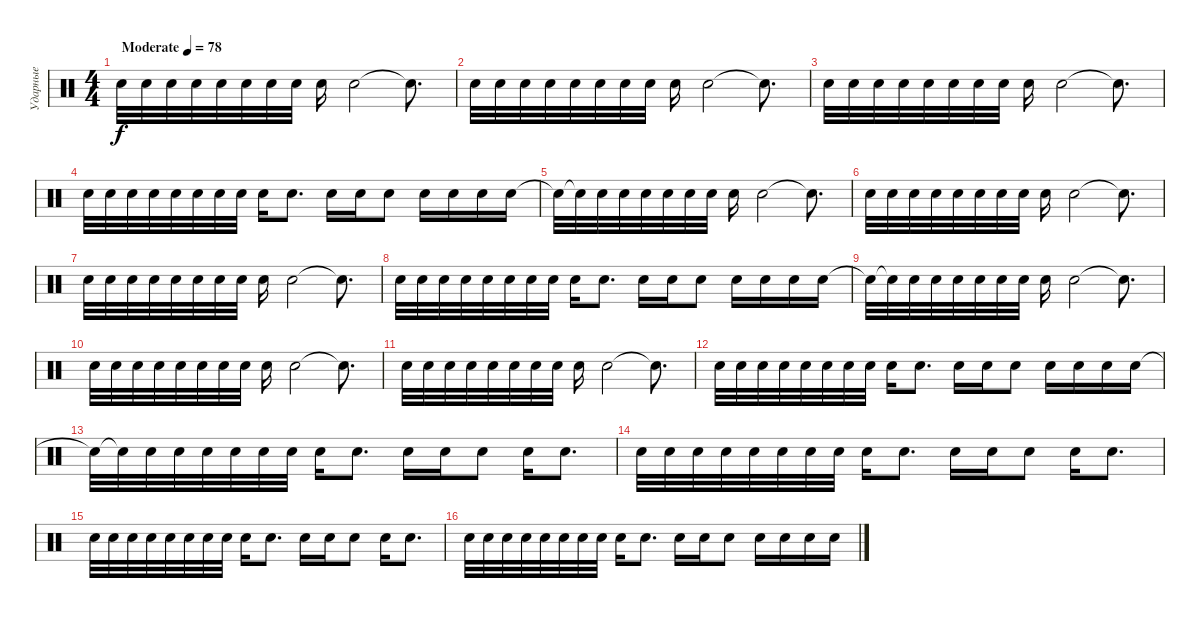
\track ("Ударные" "Ударные") {instrument percussion}
\staff {score}
\articulation defaults
\ts (4 4)
\tempo (78 "Moderate")
\clef neutral
\ks c "Snare (hit) 2".32{dy f} "Snare (hit) 2".32 "Snare (hit) 2".32 "Snare (hit) 2".32 "Snare (hit) 2".32 "Snare (hit) 2".32 "Snare (hit) 2".32 "Snare (hit) 2".32 "Snare (hit) 2".16 "Snare (hit) 2".2 "Snare (hit)"{t}.8{d}
|
"Snare (hit) 2".32 "Snare (hit) 2".32 "Snare (hit) 2".32 "Snare (hit) 2".32 "Snare (hit) 2".32 "Snare (hit) 2".32 "Snare (hit) 2".32 "Snare (hit) 2".32 "Snare (hit) 2".16 "Snare (hit) 2".2 "Snare (hit)"{t}.8{d} |
"Snare (hit) 2".32 "Snare (hit) 2".32 "Snare (hit) 2".32 "Snare (hit) 2".32 "Snare (hit) 2".32 "Snare (hit) 2".32 "Snare (hit) 2".32 "Snare (hit) 2".32 "Snare (hit) 2".16 "Snare (hit) 2".2 "Snare (hit)"{t}.8{d} |
"Snare (hit) 2".32 "Snare (hit) 2".32 "Snare (hit) 2".32 "Snare (hit) 2".32 "Snare (hit) 2".32 "Snare (hit) 2".32 "Snare (hit) 2".32 "Snare (hit) 2".32 "Snare (hit) 2".16 "Snare (hit) 2".8{d} "Snare (hit) 2".16 "Snare (hit) 2".16 "Snare (hit) 2".8 "Snare (hit) 2".16 "Snare (hit) 2".16 "Snare (hit) 2".16 "Snare (hit) 2".16 |
"Snare (hit) 2"{t}.32 "Snare (hit) 2"{t}.32 "Snare (hit) 2".32 "Snare (hit) 2".32 "Snare (hit) 2".32 "Snare (hit) 2".32 "Snare (hit) 2".32 "Snare (hit) 2".32 "Snare (hit) 2".16 "Snare (hit) 2".2 "Snare (hit)"{t}.8{d} |
"Snare (hit) 2".32 "Snare (hit) 2".32 "Snare (hit) 2".32 "Snare (hit) 2".32 "Snare (hit) 2".32 "Snare (hit) 2".32 "Snare (hit) 2".32 "Snare (hit) 2".32 "Snare (hit) 2".16 "Snare (hit) 2".2 "Snare (hit)"{t}.8{d} |
"Snare (hit) 2".32 "Snare (hit) 2".32 "Snare (hit) 2".32 "Snare (hit) 2".32 "Snare (hit) 2".32 "Snare (hit) 2".32 "Snare (hit) 2".32 "Snare (hit) 2".32 "Snare (hit) 2".16 "Snare (hit) 2".2 "Snare (hit)"{t}.8{d} |
"Snare (hit) 2".32 "Snare (hit) 2".32 "Snare (hit) 2".32 "Snare (hit) 2".32 "Snare (hit) 2".32 "Snare (hit) 2".32 "Snare (hit) 2".32 "Snare (hit) 2".32 "Snare (hit) 2".16 "Snare (hit) 2".8{d} "Snare (hit) 2".16 "Snare (hit) 2".16 "Snare (hit) 2".8 "Snare (hit) 2".16 "Snare (hit) 2".16 "Snare (hit) 2".16 "Snare (hit) 2".16 |
"Snare (hit) 2"{t}.32 "Snare (hit) 2"{t}.32 "Snare (hit) 2".32 "Snare (hit) 2".32 "Snare (hit) 2".32 "Snare (hit) 2".32 "Snare (hit) 2".32 "Snare (hit) 2".32 "Snare (hit) 2".16 "Snare (hit) 2".2 "Snare (hit)"{t}.8{d} |
"Snare (hit) 2".32 "Snare (hit) 2".32 "Snare (hit) 2".32 "Snare (hit) 2".32 "Snare (hit) 2".32 "Snare (hit) 2".32 "Snare (hit) 2".32 "Snare (hit) 2".32 "Snare (hit) 2".16 "Snare (hit) 2".2 "Snare (hit)"{t}.8{d} |
"Snare (hit) 2".32 "Snare (hit) 2".32 "Snare (hit) 2".32 "Snare (hit) 2".32 "Snare (hit) 2".32 "Snare (hit) 2".32 "Snare (hit) 2".32 "Snare (hit) 2".32 "Snare (hit) 2".16 "Snare (hit) 2".2 "Snare (hit)"{t}.8{d} |
"Snare (hit) 2".32 "Snare (hit) 2".32 "Snare (hit) 2".32 "Snare (hit) 2".32 "Snare (hit) 2".32 "Snare (hit) 2".32 "Snare (hit) 2".32 "Snare (hit) 2".32 "Snare (hit) 2".16 "Snare (hit) 2".8{d} "Snare (hit) 2".16 "Snare (hit) 2".16 "Snare (hit) 2".8 "Snare (hit) 2".16 "Snare (hit) 2".16 "Snare (hit) 2".16 "Snare (hit) 2".16 |
"Snare (hit) 2"{t}.32 "Snare (hit) 2"{t}.32 "Snare (hit) 2".32 "Snare (hit) 2".32 "Snare (hit) 2".32 "Snare (hit) 2".32 "Snare (hit) 2".32 "Snare (hit) 2".32 "Snare (hit) 2".16 "Snare (hit) 2".8{d} "Snare (hit) 2".16 "Snare (hit) 2".16 "Snare (hit) 2".8 "Snare (hit) 2".16 "Snare (hit) 2".8{d} |
"Snare (hit) 2".32 "Snare (hit) 2".32 "Snare (hit) 2".32 "Snare (hit) 2".32 "Snare (hit) 2".32 "Snare (hit) 2".32 "Snare (hit) 2".32 "Snare (hit) 2".32 "Snare (hit) 2".16 "Snare (hit) 2".8{d} "Snare (hit) 2".16 "Snare (hit) 2".16 "Snare (hit) 2".8 "Snare (hit) 2".16 "Snare (hit) 2".8{d} |
"Snare (hit) 2".32 "Snare (hit) 2".32 "Snare (hit) 2".32 "Snare (hit) 2".32 "Snare (hit) 2".32 "Snare (hit) 2".32 "Snare (hit) 2".32 "Snare (hit) 2".32 "Snare (hit) 2".16 "Snare (hit) 2".8{d} "Snare (hit) 2".16 "Snare (hit) 2".16 "Snare (hit) 2".8 "Snare (hit) 2".16 "Snare (hit) 2".8{d} |
"Snare (hit) 2".32 "Snare (hit) 2".32 "Snare (hit) 2".32 "Snare (hit) 2".32 "Snare (hit) 2".32 "Snare (hit) 2".32 "Snare (hit) 2".32 "Snare (hit) 2".32 "Snare (hit) 2".16 "Snare (hit) 2".8{d} "Snare (hit) 2".16 "Snare (hit) 2".16 "Snare (hit) 2".8 "Snare (hit) 2".16 "Snare (hit) 2".16 "Snare (hit) 2".16 "Snare (hit) 2".16
